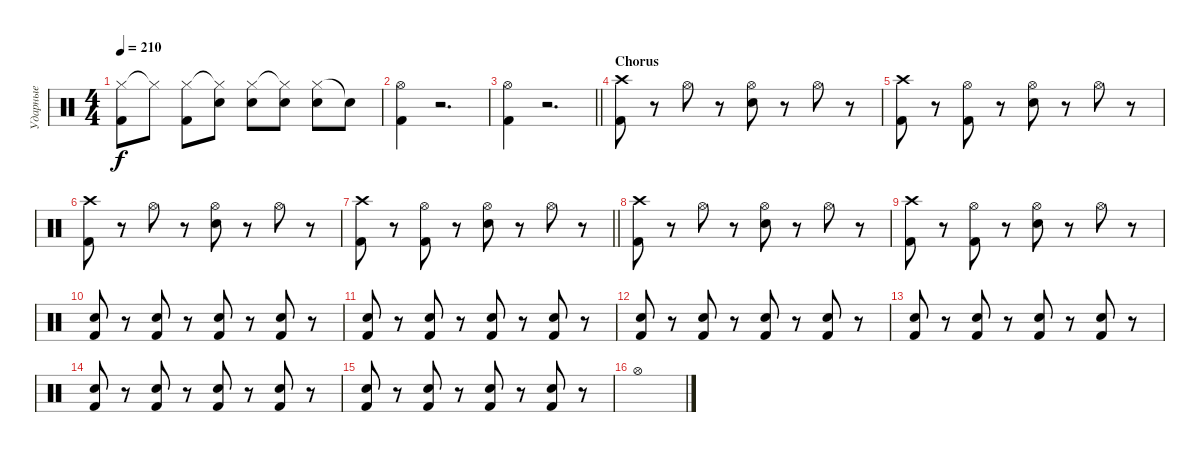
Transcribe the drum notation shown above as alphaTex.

\track ("Ударные" "Ударные") {instrument percussion}
\staff {score}
\articulation defaults
\ts (4 4)
\tempo 210
\clef neutral
\ks c
("Hi-Hat (closed)" "Kick (hit) 2").8{dy f} "Hi-Hat (closed)"{t}.8 ("Hi-Hat (closed)" "Kick (hit) 2").8 ("Hi-Hat (closed)"{t} "Snare (hit) 2").8 ("Hi-Hat (closed)" "Snare (hit) 2").8 ("Hi-Hat (closed)"{t} "Snare (hit) 2").8 ("Hi-Hat (closed)" "Snare (hit) 2").8 "Snare (hit)"{t}.8 |
("Hi-Hat (open)" "Kick (hit) 2").4 r.2{d} |
\barLineRight lightlight
("Hi-Hat (open)" "Kick (hit) 2").4 r.2{d} |
\section ("" "Chorus")
("Crash high (hit)" "Kick (hit) 2").8 r.8 "Hi-Hat (open)".8 r.8 ("Hi-Hat (open)" "Snare (hit) 2").8 r.8 "Hi-Hat (open)".8 r.8 |
("Crash high (hit)" "Kick (hit) 2").8 r.8 ("Hi-Hat (open)" "Kick (hit) 2").8 r.8 ("Hi-Hat (open)" "Snare (hit) 2").8 r.8 "Hi-Hat (open)".8 r.8 |
("Crash high (hit)" "Kick (hit) 2").8 r.8 "Hi-Hat (open)".8 r.8 ("Hi-Hat (open)" "Snare (hit) 2").8 r.8 "Hi-Hat (open)".8 r.8 |
\barLineRight lightlight
("Crash high (hit)" "Kick (hit) 2").8 r.8 ("Hi-Hat (open)" "Kick (hit) 2").8 r.8 ("Hi-Hat (open)" "Snare (hit) 2").8 r.8 "Hi-Hat (open)".8 r.8 |
\section ("" "")
("Crash high (hit)" "Kick (hit) 2").8 r.8 "Hi-Hat (open)".8 r.8 ("Hi-Hat (open)" "Snare (hit) 2").8 r.8 "Hi-Hat (open)".8 r.8 |
("Crash high (hit)" "Kick (hit) 2").8 r.8 ("Hi-Hat (open)" "Kick (hit) 2").8 r.8 ("Hi-Hat (open)" "Snare (hit) 2").8 r.8 "Hi-Hat (open)".8 r.8 |
("Snare (hit) 2" "Kick (hit) 2").8 r.8 ("Snare (hit) 2" "Kick (hit) 2").8 r.8 ("Snare (hit) 2" "Kick (hit) 2").8 r.8 ("Snare (hit) 2" "Kick (hit) 2").8 r.8 |
("Snare (hit) 2" "Kick (hit) 2").8 r.8 ("Snare (hit) 2" "Kick (hit) 2").8 r.8 ("Snare (hit) 2" "Kick (hit) 2").8 r.8 ("Snare (hit) 2" "Kick (hit) 2").8 r.8 |
("Snare (hit) 2" "Kick (hit) 2").8 r.8 ("Snare (hit) 2" "Kick (hit) 2").8 r.8 ("Snare (hit) 2" "Kick (hit) 2").8 r.8 ("Snare (hit) 2" "Kick (hit) 2").8 r.8 |
("Snare (hit) 2" "Kick (hit) 2").8 r.8 ("Snare (hit) 2" "Kick (hit) 2").8 r.8 ("Snare (hit) 2" "Kick (hit) 2").8 r.8 ("Snare (hit) 2" "Kick (hit) 2").8 r.8 |
("Snare (hit) 2" "Kick (hit) 2").8 r.8 ("Snare (hit) 2" "Kick (hit) 2").8 r.8 ("Snare (hit) 2" "Kick (hit) 2").8 r.8 ("Snare (hit) 2" "Kick (hit) 2").8 r.8 |
("Snare (hit) 2" "Kick (hit) 2").8 r.8 ("Snare (hit) 2" "Kick (hit) 2").8 r.8 ("Snare (hit) 2" "Kick (hit) 2").8 r.8 ("Snare (hit) 2" "Kick (hit) 2").8 r.8 |
"Hi-Hat (open)".1
